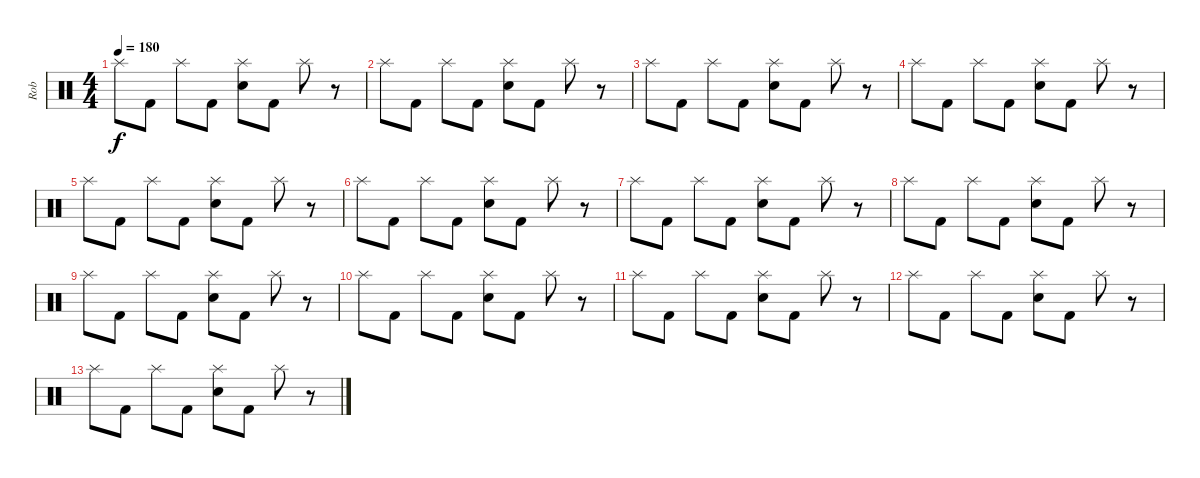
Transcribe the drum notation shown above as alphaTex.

\track ("Rob" "Rob") {instrument percussion}
\staff {score}
\articulation defaults
\ts (4 4)
\tempo 180
\clef neutral
\ks c "Splash (hit)".8{dy f} "Kick (hit) 2".8 "Splash (hit)".8 "Kick (hit) 2".8
("Splash (hit)" "Electric Snare (hit)").8 "Kick (hit) 2".8 "Splash (hit)".8 r.8 |
"Splash (hit)".8 "Kick (hit) 2".8 "Splash (hit)".8 "Kick (hit) 2".8 ("Splash (hit)" "Electric Snare (hit)").8 "Kick (hit) 2".8 "Splash (hit)".8 r.8 |
"Splash (hit)".8 "Kick (hit) 2".8 "Splash (hit)".8 "Kick (hit) 2".8 ("Splash (hit)" "Electric Snare (hit)").8 "Kick (hit) 2".8 "Splash (hit)".8 r.8 |
"Splash (hit)".8 "Kick (hit) 2".8 "Splash (hit)".8 "Kick (hit) 2".8 ("Splash (hit)" "Electric Snare (hit)").8 "Kick (hit) 2".8 "Splash (hit)".8 r.8 |
"Splash (hit)".8 "Kick (hit) 2".8 "Splash (hit)".8 "Kick (hit) 2".8 ("Splash (hit)" "Electric Snare (hit)").8 "Kick (hit) 2".8 "Splash (hit)".8 r.8 |
"Splash (hit)".8 "Kick (hit) 2".8 "Splash (hit)".8 "Kick (hit) 2".8 ("Splash (hit)" "Electric Snare (hit)").8 "Kick (hit) 2".8 "Splash (hit)".8 r.8 |
"Splash (hit)".8 "Kick (hit) 2".8 "Splash (hit)".8 "Kick (hit) 2".8 ("Splash (hit)" "Electric Snare (hit)").8 "Kick (hit) 2".8 "Splash (hit)".8 r.8 |
"Splash (hit)".8 "Kick (hit) 2".8 "Splash (hit)".8 "Kick (hit) 2".8 ("Splash (hit)" "Electric Snare (hit)").8 "Kick (hit) 2".8 "Splash (hit)".8 r.8 |
"Splash (hit)".8 "Kick (hit) 2".8 "Splash (hit)".8 "Kick (hit) 2".8 ("Splash (hit)" "Electric Snare (hit)").8 "Kick (hit) 2".8 "Splash (hit)".8 r.8 |
"Splash (hit)".8 "Kick (hit) 2".8 "Splash (hit)".8 "Kick (hit) 2".8 ("Splash (hit)" "Electric Snare (hit)").8 "Kick (hit) 2".8 "Splash (hit)".8 r.8 |
"Splash (hit)".8 "Kick (hit) 2".8 "Splash (hit)".8 "Kick (hit) 2".8 ("Splash (hit)" "Electric Snare (hit)").8 "Kick (hit) 2".8 "Splash (hit)".8 r.8 |
"Splash (hit)".8 "Kick (hit) 2".8 "Splash (hit)".8 "Kick (hit) 2".8 ("Splash (hit)" "Electric Snare (hit)").8 "Kick (hit) 2".8 "Splash (hit)".8 r.8 |
"Splash (hit)".8 "Kick (hit) 2".8 "Splash (hit)".8 "Kick (hit) 2".8 ("Splash (hit)" "Electric Snare (hit)").8 "Kick (hit) 2".8 "Splash (hit)".8 r.8
